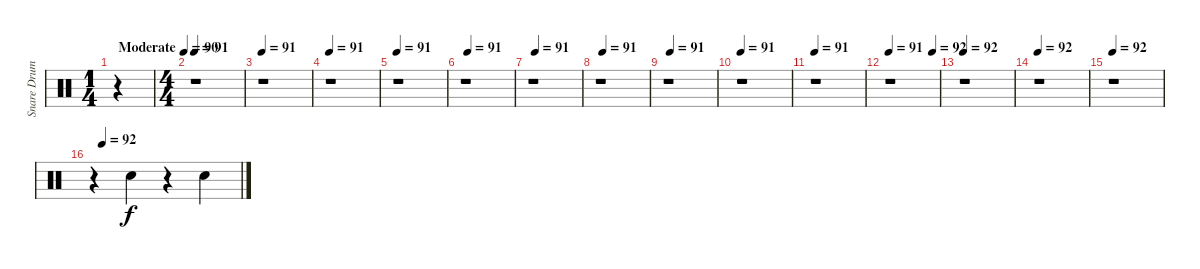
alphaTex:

\track ("Snare Drums" "Snare Drum") {instrument percussion}
\staff {score}
\articulation defaults
\ts (1 4)
\tempo (90 "Moderate")
\clef neutral
\ks c
r.4{dy f} |
\ts (4 4)
\tempo 91
r.1 |
\tempo 91
r.1 |
\tempo 91
r.1 |
\tempo 91
r.1 |
\tempo (91 0.0625)
r.1 |
\tempo (91 0.0625)
r.1 |
\tempo (91 0.0625)
r.1 |
\tempo (91 0.0625)
r.1 |
\tempo 91
r.1 |
\tempo 91
r.1 |
\tempo 91
\tempo (92 0.875)
r.1 |
\tempo 92
r.1 |
\tempo 92
r.1 |
\tempo 92
r.1 |
\tempo (92 0.0625)
r.4 "Snare (hit) 2".4 r.4 "Snare (hit) 2".4
